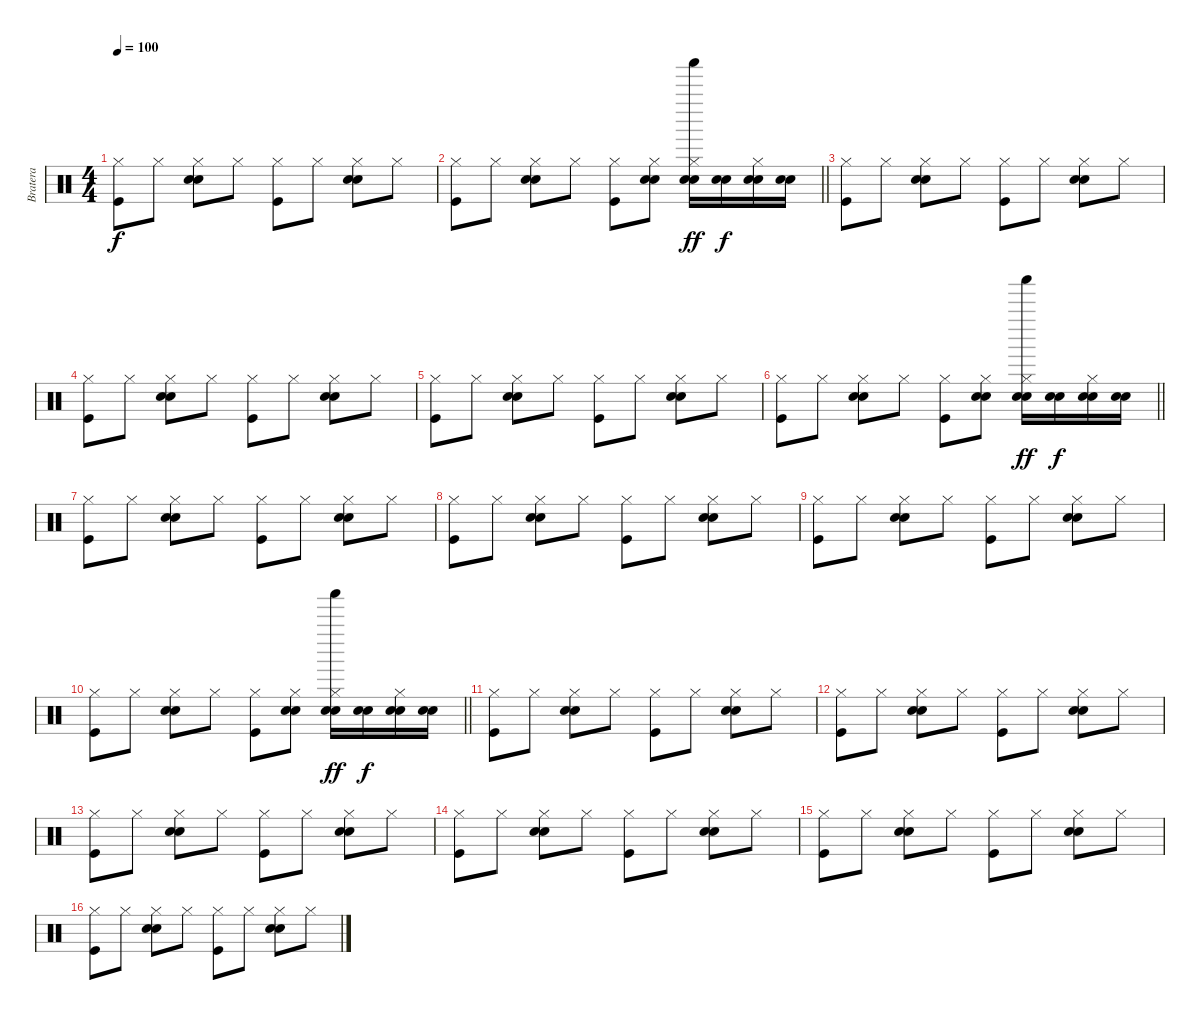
\track ("Bratera" "Bratera") {instrument percussion}
\staff {score}
\articulation defaults
\ts (4 4)
\tempo 100
\clef neutral
\ks c
("Hi-Hat (closed)" "Kick (hit)").8{dy f} "Hi-Hat (closed)".8 ("Hi-Hat (closed)" "Snare (hit) 2" "Electric Snare (hit)").8 "Hi-Hat (closed)".8 ("Hi-Hat (closed)" "Kick (hit)").8 "Hi-Hat (closed)".8 ("Hi-Hat (closed)" "Snare (hit) 2" "Electric Snare (hit)").8 "Hi-Hat (closed)".8 |
\barLineRight lightlight
("Hi-Hat (closed)" "Kick (hit)").8 "Hi-Hat (closed)".8 ("Hi-Hat (closed)" "Snare (hit) 2" "Electric Snare (hit)").8 "Hi-Hat (closed)".8 ("Hi-Hat (closed)" "Kick (hit)").8 ("Hi-Hat (closed)" "Snare (hit) 2" "Electric Snare (hit)").8 ("Hi-Hat (closed)" "Shaker (hit)" "Snare (hit) 2" "Electric Snare (hit)").16{dy ff} ("Snare (hit) 2" "Electric Snare (hit)").16{dy f} ("Hi-Hat (closed)" "Snare (hit) 2" "Electric Snare (hit)").16 ("Snare (hit) 2" "Electric Snare (hit)").16 |
("Hi-Hat (closed)" "Kick (hit)").8 "Hi-Hat (closed)".8 ("Hi-Hat (closed)" "Snare (hit) 2" "Electric Snare (hit)").8 "Hi-Hat (closed)".8 ("Hi-Hat (closed)" "Kick (hit)").8 "Hi-Hat (closed)".8 ("Hi-Hat (closed)" "Snare (hit) 2" "Electric Snare (hit)").8 "Hi-Hat (closed)".8 |
("Hi-Hat (closed)" "Kick (hit)").8 "Hi-Hat (closed)".8 ("Hi-Hat (closed)" "Snare (hit) 2" "Electric Snare (hit)").8 "Hi-Hat (closed)".8 ("Hi-Hat (closed)" "Kick (hit)").8 "Hi-Hat (closed)".8 ("Hi-Hat (closed)" "Snare (hit) 2" "Electric Snare (hit)").8 "Hi-Hat (closed)".8 |
("Hi-Hat (closed)" "Kick (hit)").8 "Hi-Hat (closed)".8 ("Hi-Hat (closed)" "Snare (hit) 2" "Electric Snare (hit)").8 "Hi-Hat (closed)".8 ("Hi-Hat (closed)" "Kick (hit)").8 "Hi-Hat (closed)".8 ("Hi-Hat (closed)" "Snare (hit) 2" "Electric Snare (hit)").8 "Hi-Hat (closed)".8 |
\barLineRight lightlight
("Hi-Hat (closed)" "Kick (hit)").8 "Hi-Hat (closed)".8 ("Hi-Hat (closed)" "Snare (hit) 2" "Electric Snare (hit)").8 "Hi-Hat (closed)".8 ("Hi-Hat (closed)" "Kick (hit)").8 ("Hi-Hat (closed)" "Snare (hit) 2" "Electric Snare (hit)").8 ("Hi-Hat (closed)" "Shaker (hit)" "Snare (hit) 2" "Electric Snare (hit)").16{dy ff} ("Snare (hit) 2" "Electric Snare (hit)").16{dy f} ("Hi-Hat (closed)" "Snare (hit) 2" "Electric Snare (hit)").16 ("Snare (hit) 2" "Electric Snare (hit)").16 |
("Hi-Hat (closed)" "Kick (hit)").8 "Hi-Hat (closed)".8 ("Hi-Hat (closed)" "Snare (hit) 2" "Electric Snare (hit)").8 "Hi-Hat (closed)".8 ("Hi-Hat (closed)" "Kick (hit)").8 "Hi-Hat (closed)".8 ("Hi-Hat (closed)" "Snare (hit) 2" "Electric Snare (hit)").8 "Hi-Hat (closed)".8 |
("Hi-Hat (closed)" "Kick (hit)").8 "Hi-Hat (closed)".8 ("Hi-Hat (closed)" "Snare (hit) 2" "Electric Snare (hit)").8 "Hi-Hat (closed)".8 ("Hi-Hat (closed)" "Kick (hit)").8 "Hi-Hat (closed)".8 ("Hi-Hat (closed)" "Snare (hit) 2" "Electric Snare (hit)").8 "Hi-Hat (closed)".8 |
("Hi-Hat (closed)" "Kick (hit)").8 "Hi-Hat (closed)".8 ("Hi-Hat (closed)" "Snare (hit) 2" "Electric Snare (hit)").8 "Hi-Hat (closed)".8 ("Hi-Hat (closed)" "Kick (hit)").8 "Hi-Hat (closed)".8 ("Hi-Hat (closed)" "Snare (hit) 2" "Electric Snare (hit)").8 "Hi-Hat (closed)".8 |
\barLineRight lightlight
("Hi-Hat (closed)" "Kick (hit)").8 "Hi-Hat (closed)".8 ("Hi-Hat (closed)" "Snare (hit) 2" "Electric Snare (hit)").8 "Hi-Hat (closed)".8 ("Hi-Hat (closed)" "Kick (hit)").8 ("Hi-Hat (closed)" "Snare (hit) 2" "Electric Snare (hit)").8 ("Hi-Hat (closed)" "Shaker (hit)" "Snare (hit) 2" "Electric Snare (hit)").16{dy ff} ("Snare (hit) 2" "Electric Snare (hit)").16{dy f} ("Hi-Hat (closed)" "Snare (hit) 2" "Electric Snare (hit)").16 ("Snare (hit) 2" "Electric Snare (hit)").16 |
("Hi-Hat (closed)" "Kick (hit)").8 "Hi-Hat (closed)".8 ("Hi-Hat (closed)" "Snare (hit) 2" "Electric Snare (hit)").8 "Hi-Hat (closed)".8 ("Hi-Hat (closed)" "Kick (hit)").8 "Hi-Hat (closed)".8 ("Hi-Hat (closed)" "Snare (hit) 2" "Electric Snare (hit)").8 "Hi-Hat (closed)".8 |
("Hi-Hat (closed)" "Kick (hit)").8 "Hi-Hat (closed)".8 ("Hi-Hat (closed)" "Snare (hit) 2" "Electric Snare (hit)").8 "Hi-Hat (closed)".8 ("Hi-Hat (closed)" "Kick (hit)").8 "Hi-Hat (closed)".8 ("Hi-Hat (closed)" "Snare (hit) 2" "Electric Snare (hit)").8 "Hi-Hat (closed)".8 |
("Hi-Hat (closed)" "Kick (hit)").8 "Hi-Hat (closed)".8 ("Hi-Hat (closed)" "Snare (hit) 2" "Electric Snare (hit)").8 "Hi-Hat (closed)".8 ("Hi-Hat (closed)" "Kick (hit)").8 "Hi-Hat (closed)".8 ("Hi-Hat (closed)" "Snare (hit) 2" "Electric Snare (hit)").8 "Hi-Hat (closed)".8 |
("Hi-Hat (closed)" "Kick (hit)").8 "Hi-Hat (closed)".8 ("Hi-Hat (closed)" "Snare (hit) 2" "Electric Snare (hit)").8 "Hi-Hat (closed)".8 ("Hi-Hat (closed)" "Kick (hit)").8 "Hi-Hat (closed)".8 ("Hi-Hat (closed)" "Snare (hit) 2" "Electric Snare (hit)").8 "Hi-Hat (closed)".8 |
("Hi-Hat (closed)" "Kick (hit)").8 "Hi-Hat (closed)".8 ("Hi-Hat (closed)" "Snare (hit) 2" "Electric Snare (hit)").8 "Hi-Hat (closed)".8 ("Hi-Hat (closed)" "Kick (hit)").8 "Hi-Hat (closed)".8 ("Hi-Hat (closed)" "Snare (hit) 2" "Electric Snare (hit)").8 "Hi-Hat (closed)".8 |
("Hi-Hat (closed)" "Kick (hit)").8 "Hi-Hat (closed)".8 ("Hi-Hat (closed)" "Snare (hit) 2" "Electric Snare (hit)").8 "Hi-Hat (closed)".8 ("Hi-Hat (closed)" "Kick (hit)").8 "Hi-Hat (closed)".8 ("Hi-Hat (closed)" "Snare (hit) 2" "Electric Snare (hit)").8 "Hi-Hat (closed)".8
